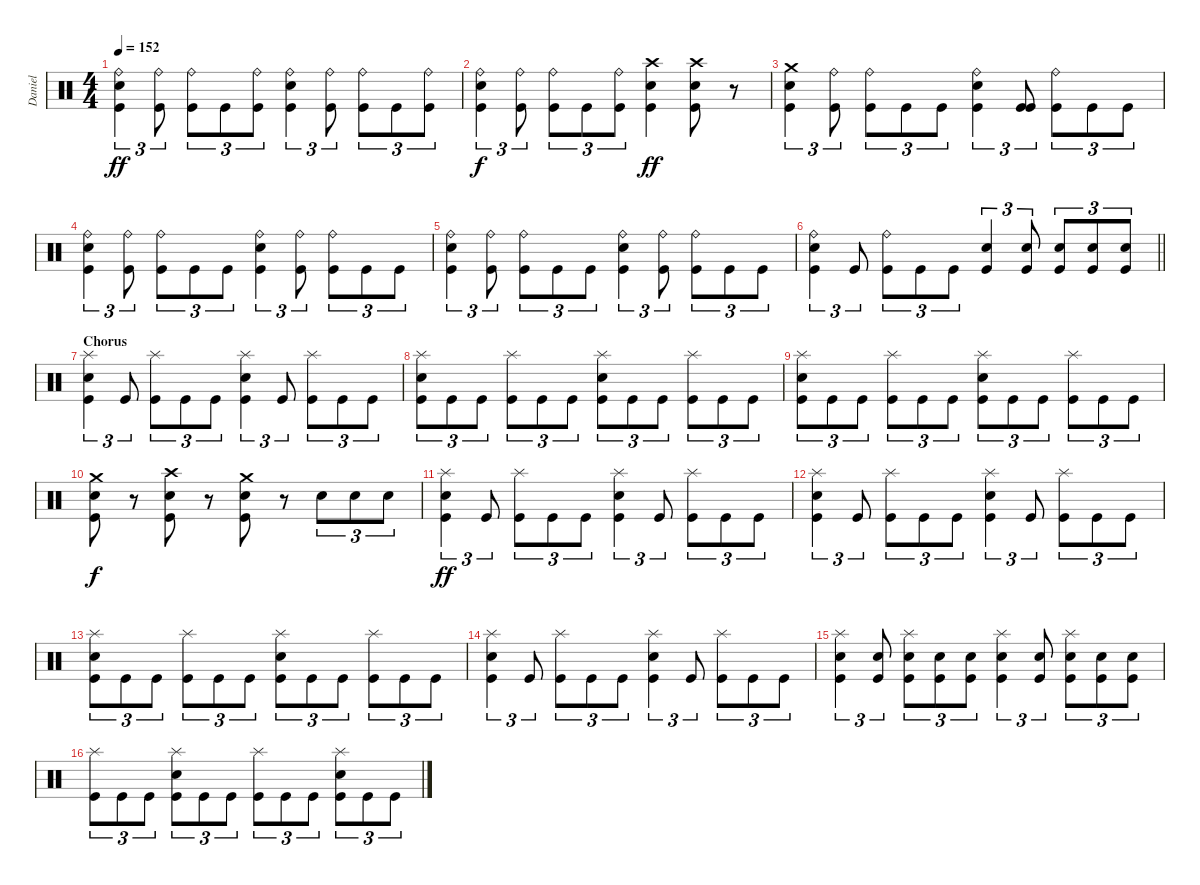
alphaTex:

\track ("Daniel" "Daniel") {instrument percussion}
\staff {score}
\articulation defaults
\ts (4 4)
\tempo 152
\clef neutral
\ks c
("Kick (hit)" "Snare (hit) 2" "Ride (bell)").4{tu (3 2) dy ff} ("Kick (hit)" "Ride (bell)").8{tu (3 2)} ("Kick (hit)" "Ride (bell)").8{tu (3 2)} "Kick (hit)".8{tu (3 2)} ("Kick (hit)" "Ride (bell)").8{tu (3 2)} ("Kick (hit)" "Snare (hit) 2" "Ride (bell)").4{tu (3 2)} ("Kick (hit)" "Ride (bell)").8{tu (3 2)} ("Kick (hit)" "Ride (bell)").8{tu (3 2)} "Kick (hit)".8{tu (3 2)} ("Kick (hit)" "Ride (bell)").8{tu (3 2)} |
("Kick (hit)" "Snare (hit) 2" "Ride (bell)").4{tu (3 2) dy f} ("Kick (hit)" "Ride (bell)").8{tu (3 2)} ("Kick (hit)" "Ride (bell)").8{tu (3 2)} "Kick (hit)".8{tu (3 2)} ("Kick (hit)" "Ride (bell)").8{tu (3 2)} ("Kick (hit)" "Snare (hit) 2" "Crash high (hit)").4{dy ff} ("Kick (hit)" "Snare (hit) 2" "Crash high (hit)").8 r.8 |
("Kick (hit)" "Snare (hit) 2" "Crash medium (hit)").4{tu (3 2)} ("Kick (hit)" "Ride (bell)").8{tu (3 2)} ("Kick (hit)" "Ride (bell)").8{tu (3 2)} "Kick (hit)".8{tu (3 2)} "Kick (hit)".8{tu (3 2)} ("Kick (hit)" "Snare (hit) 2" "Ride (bell)").4{tu (3 2)} ("Kick (hit)" "Kick (hit)").8{tu (3 2)} ("Kick (hit)" "Ride (bell)").8{tu (3 2)} "Kick (hit)".8{tu (3 2)} "Kick (hit)".8{tu (3 2)} |
("Kick (hit)" "Snare (hit) 2" "Ride (bell)").4{tu (3 2)} ("Kick (hit)" "Ride (bell)").8{tu (3 2)} ("Kick (hit)" "Ride (bell)").8{tu (3 2)} "Kick (hit)".8{tu (3 2)} "Kick (hit)".8{tu (3 2)} ("Kick (hit)" "Snare (hit) 2" "Ride (bell)").4{tu (3 2)} ("Kick (hit)" "Ride (bell)").8{tu (3 2)} ("Kick (hit)" "Ride (bell)").8{tu (3 2)} "Kick (hit)".8{tu (3 2)} "Kick (hit)".8{tu (3 2)} |
("Kick (hit)" "Snare (hit) 2" "Ride (bell)").4{tu (3 2)} ("Kick (hit)" "Ride (bell)").8{tu (3 2)} ("Kick (hit)" "Ride (bell)").8{tu (3 2)} "Kick (hit)".8{tu (3 2)} "Kick (hit)".8{tu (3 2)} ("Kick (hit)" "Snare (hit) 2" "Ride (bell)").4{tu (3 2)} ("Kick (hit)" "Ride (bell)").8{tu (3 2)} ("Kick (hit)" "Ride (bell)").8{tu (3 2)} "Kick (hit)".8{tu (3 2)} "Kick (hit)".8{tu (3 2)} |
\barLineRight lightlight
("Kick (hit)" "Snare (hit) 2" "Ride (bell)").4{tu (3 2)} "Kick (hit)".8{tu (3 2)} ("Kick (hit)" "Ride (bell)").8{tu (3 2)} "Kick (hit)".8{tu (3 2)} "Kick (hit)".8{tu (3 2)} ("Kick (hit)" "Snare (hit) 2").4{tu (3 2)} ("Kick (hit)" "Snare (hit) 2").8{tu (3 2)} ("Kick (hit)" "Snare (hit) 2").8{tu (3 2)} ("Kick (hit)" "Snare (hit) 2").8{tu (3 2)} ("Kick (hit)" "Snare (hit) 2").8{tu (3 2)} |
\section ("" "Chorus")
("Kick (hit)" "Snare (hit) 2" "Splash (hit)").4{tu (3 2)} "Kick (hit)".8{tu (3 2)} ("Kick (hit)" "Splash (hit)").8{tu (3 2)} "Kick (hit)".8{tu (3 2)} "Kick (hit)".8{tu (3 2)} ("Kick (hit)" "Snare (hit) 2" "Splash (hit)").4{tu (3 2)} "Kick (hit)".8{tu (3 2)} ("Kick (hit)" "Splash (hit)").8{tu (3 2)} "Kick (hit)".8{tu (3 2)} "Kick (hit)".8{tu (3 2)} |
("Kick (hit)" "Snare (hit) 2" "Splash (hit)").8{tu (3 2)} "Kick (hit)".8{tu (3 2)} "Kick (hit)".8{tu (3 2)} ("Kick (hit)" "Splash (hit)").8{tu (3 2)} "Kick (hit)".8{tu (3 2)} "Kick (hit)".8{tu (3 2)} ("Kick (hit)" "Snare (hit) 2" "Splash (hit)").8{tu (3 2)} "Kick (hit)".8{tu (3 2)} "Kick (hit)".8{tu (3 2)} ("Kick (hit)" "Splash (hit)").8{tu (3 2)} "Kick (hit)".8{tu (3 2)} "Kick (hit)".8{tu (3 2)} |
("Kick (hit)" "Snare (hit) 2" "Splash (hit)").8{tu (3 2)} "Kick (hit)".8{tu (3 2)} "Kick (hit)".8{tu (3 2)} ("Kick (hit)" "Splash (hit)").8{tu (3 2)} "Kick (hit)".8{tu (3 2)} "Kick (hit)".8{tu (3 2)} ("Kick (hit)" "Snare (hit) 2" "Splash (hit)").8{tu (3 2)} "Kick (hit)".8{tu (3 2)} "Kick (hit)".8{tu (3 2)} ("Kick (hit)" "Splash (hit)").8{tu (3 2)} "Kick (hit)".8{tu (3 2)} "Kick (hit)".8{tu (3 2)} |
("Kick (hit)" "Snare (hit) 2" "Crash medium (hit)").8{dy f} r.8 ("Kick (hit)" "Snare (hit) 2" "Crash high (hit)").8 r.8 ("Kick (hit)" "Snare (hit) 2" "Crash medium (hit)").8 r.8 "Snare (hit) 2".8{tu (3 2)} "Snare (hit) 2".8{tu (3 2)} "Snare (hit) 2".8{tu (3 2)} |
("Kick (hit)" "Snare (hit) 2" "Splash (hit)").4{tu (3 2) dy ff} "Kick (hit)".8{tu (3 2)} ("Kick (hit)" "Splash (hit)").8{tu (3 2)} "Kick (hit)".8{tu (3 2)} "Kick (hit)".8{tu (3 2)} ("Kick (hit)" "Snare (hit) 2" "Splash (hit)").4{tu (3 2)} "Kick (hit)".8{tu (3 2)} ("Kick (hit)" "Splash (hit)").8{tu (3 2)} "Kick (hit)".8{tu (3 2)} "Kick (hit)".8{tu (3 2)} |
("Kick (hit)" "Snare (hit) 2" "Splash (hit)").4{tu (3 2)} "Kick (hit)".8{tu (3 2)} ("Kick (hit)" "Splash (hit)").8{tu (3 2)} "Kick (hit)".8{tu (3 2)} "Kick (hit)".8{tu (3 2)} ("Kick (hit)" "Snare (hit) 2" "Splash (hit)").4{tu (3 2)} "Kick (hit)".8{tu (3 2)} ("Kick (hit)" "Splash (hit)").8{tu (3 2)} "Kick (hit)".8{tu (3 2)} "Kick (hit)".8{tu (3 2)} |
("Kick (hit)" "Snare (hit) 2" "Splash (hit)").8{tu (3 2)} "Kick (hit)".8{tu (3 2)} "Kick (hit)".8{tu (3 2)} ("Kick (hit)" "Splash (hit)").8{tu (3 2)} "Kick (hit)".8{tu (3 2)} "Kick (hit)".8{tu (3 2)} ("Kick (hit)" "Snare (hit) 2" "Splash (hit)").8{tu (3 2)} "Kick (hit)".8{tu (3 2)} "Kick (hit)".8{tu (3 2)} ("Kick (hit)" "Splash (hit)").8{tu (3 2)} "Kick (hit)".8{tu (3 2)} "Kick (hit)".8{tu (3 2)} |
("Kick (hit)" "Snare (hit) 2" "Splash (hit)").4{tu (3 2)} "Kick (hit)".8{tu (3 2)} ("Kick (hit)" "Splash (hit)").8{tu (3 2)} "Kick (hit)".8{tu (3 2)} "Kick (hit)".8{tu (3 2)} ("Kick (hit)" "Snare (hit) 2" "Splash (hit)").4{tu (3 2)} "Kick (hit)".8{tu (3 2)} ("Kick (hit)" "Splash (hit)").8{tu (3 2)} "Kick (hit)".8{tu (3 2)} "Kick (hit)".8{tu (3 2)} |
("Kick (hit)" "Snare (hit) 2" "Splash (hit)").4{tu (3 2)} ("Kick (hit)" "Snare (hit) 2").8{tu (3 2)} ("Kick (hit)" "Snare (hit) 2" "Splash (hit)").8{tu (3 2)} ("Kick (hit)" "Snare (hit) 2").8{tu (3 2)} ("Kick (hit)" "Snare (hit) 2").8{tu (3 2)} ("Kick (hit)" "Snare (hit) 2" "Splash (hit)").4{tu (3 2)} ("Kick (hit)" "Snare (hit) 2").8{tu (3 2)} ("Kick (hit)" "Snare (hit) 2" "Splash (hit)").8{tu (3 2)} ("Kick (hit)" "Snare (hit) 2").8{tu (3 2)} ("Kick (hit)" "Snare (hit) 2").8{tu (3 2)} |
("Kick (hit)" "Splash (hit)").8{tu (3 2)} "Kick (hit)".8{tu (3 2)} "Kick (hit)".8{tu (3 2)} ("Kick (hit)" "Snare (hit) 2" "Splash (hit)").8{tu (3 2)} "Kick (hit)".8{tu (3 2)} "Kick (hit)".8{tu (3 2)} ("Kick (hit)" "Splash (hit)").8{tu (3 2)} "Kick (hit)".8{tu (3 2)} "Kick (hit)".8{tu (3 2)} ("Kick (hit)" "Snare (hit) 2" "Splash (hit)").8{tu (3 2)} "Kick (hit)".8{tu (3 2)} "Kick (hit)".8{tu (3 2)}
